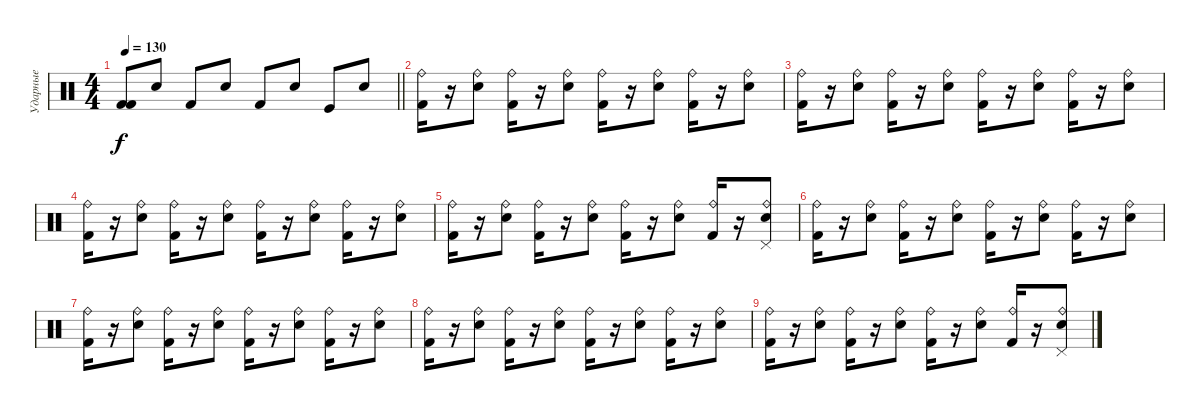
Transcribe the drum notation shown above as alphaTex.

\track ("Ударные" "Ударные") {instrument percussion}
\staff {score}
\articulation defaults
\ts (4 4)
\tempo 130
\clef neutral
\barLineRight lightlight
\ks c
("Kick (hit) 2" "Kick (hit) 2").8{dy f} "Snare (hit) 2".8 "Kick (hit) 2".8 "Snare (hit) 2".8 "Kick (hit) 2".8 "Snare (hit) 2".8 "Kick (hit)".8 "Snare (hit) 2".8 |
("Ride (bell)" "Kick (hit) 2").16 r.16 ("Ride (bell)" "Snare (hit) 2").8 ("Ride (bell)" "Kick (hit) 2").16 r.16 ("Ride (bell)" "Snare (hit) 2").8 ("Ride (bell)" "Kick (hit) 2").16 r.16 ("Ride (bell)" "Snare (hit) 2").8 ("Ride (bell)" "Kick (hit) 2").16 r.16 ("Ride (bell)" "Snare (hit) 2").8 |
("Ride (bell)" "Kick (hit) 2").16 r.16 ("Ride (bell)" "Snare (hit) 2").8 ("Ride (bell)" "Kick (hit) 2").16 r.16 ("Ride (bell)" "Snare (hit) 2").8 ("Ride (bell)" "Kick (hit) 2").16 r.16 ("Ride (bell)" "Snare (hit) 2").8 ("Ride (bell)" "Kick (hit) 2").16 r.16 ("Ride (bell)" "Snare (hit) 2").8 |
("Ride (bell)" "Kick (hit) 2").16 r.16 ("Ride (bell)" "Snare (hit) 2").8 ("Ride (bell)" "Kick (hit) 2").16 r.16 ("Ride (bell)" "Snare (hit) 2").8 ("Ride (bell)" "Kick (hit) 2").16 r.16 ("Ride (bell)" "Snare (hit) 2").8 ("Ride (bell)" "Kick (hit) 2").16 r.16 ("Ride (bell)" "Snare (hit) 2").8 |
("Ride (bell)" "Kick (hit) 2").16 r.16 ("Ride (bell)" "Snare (hit) 2").8 ("Ride (bell)" "Kick (hit) 2").16 r.16 ("Ride (bell)" "Snare (hit) 2").8 ("Ride (bell)" "Kick (hit) 2").16 r.16 ("Ride (bell)" "Snare (hit) 2").8 ("Ride (bell)" "Kick (hit) 2").16 r.16 ("Ride (bell)" "Snare (hit) 2" "Pedal Hi-Hat (hit)").8 |
("Ride (bell)" "Kick (hit) 2").16 r.16 ("Ride (bell)" "Snare (hit) 2").8 ("Ride (bell)" "Kick (hit) 2").16 r.16 ("Ride (bell)" "Snare (hit) 2").8 ("Ride (bell)" "Kick (hit) 2").16 r.16 ("Ride (bell)" "Snare (hit) 2").8 ("Ride (bell)" "Kick (hit) 2").16 r.16 ("Ride (bell)" "Snare (hit) 2").8 |
("Ride (bell)" "Kick (hit) 2").16 r.16 ("Ride (bell)" "Snare (hit) 2").8 ("Ride (bell)" "Kick (hit) 2").16 r.16 ("Ride (bell)" "Snare (hit) 2").8 ("Ride (bell)" "Kick (hit) 2").16 r.16 ("Ride (bell)" "Snare (hit) 2").8 ("Ride (bell)" "Kick (hit) 2").16 r.16 ("Ride (bell)" "Snare (hit) 2").8 |
("Ride (bell)" "Kick (hit) 2").16 r.16 ("Ride (bell)" "Snare (hit) 2").8 ("Ride (bell)" "Kick (hit) 2").16 r.16 ("Ride (bell)" "Snare (hit) 2").8 ("Ride (bell)" "Kick (hit) 2").16 r.16 ("Ride (bell)" "Snare (hit) 2").8 ("Ride (bell)" "Kick (hit) 2").16 r.16 ("Ride (bell)" "Snare (hit) 2").8 |
("Ride (bell)" "Kick (hit) 2").16 r.16 ("Ride (bell)" "Snare (hit) 2").8 ("Ride (bell)" "Kick (hit) 2").16 r.16 ("Ride (bell)" "Snare (hit) 2").8 ("Ride (bell)" "Kick (hit) 2").16 r.16 ("Ride (bell)" "Snare (hit) 2").8 ("Ride (bell)" "Kick (hit) 2").16 r.16 ("Ride (bell)" "Snare (hit) 2" "Pedal Hi-Hat (hit)").8
